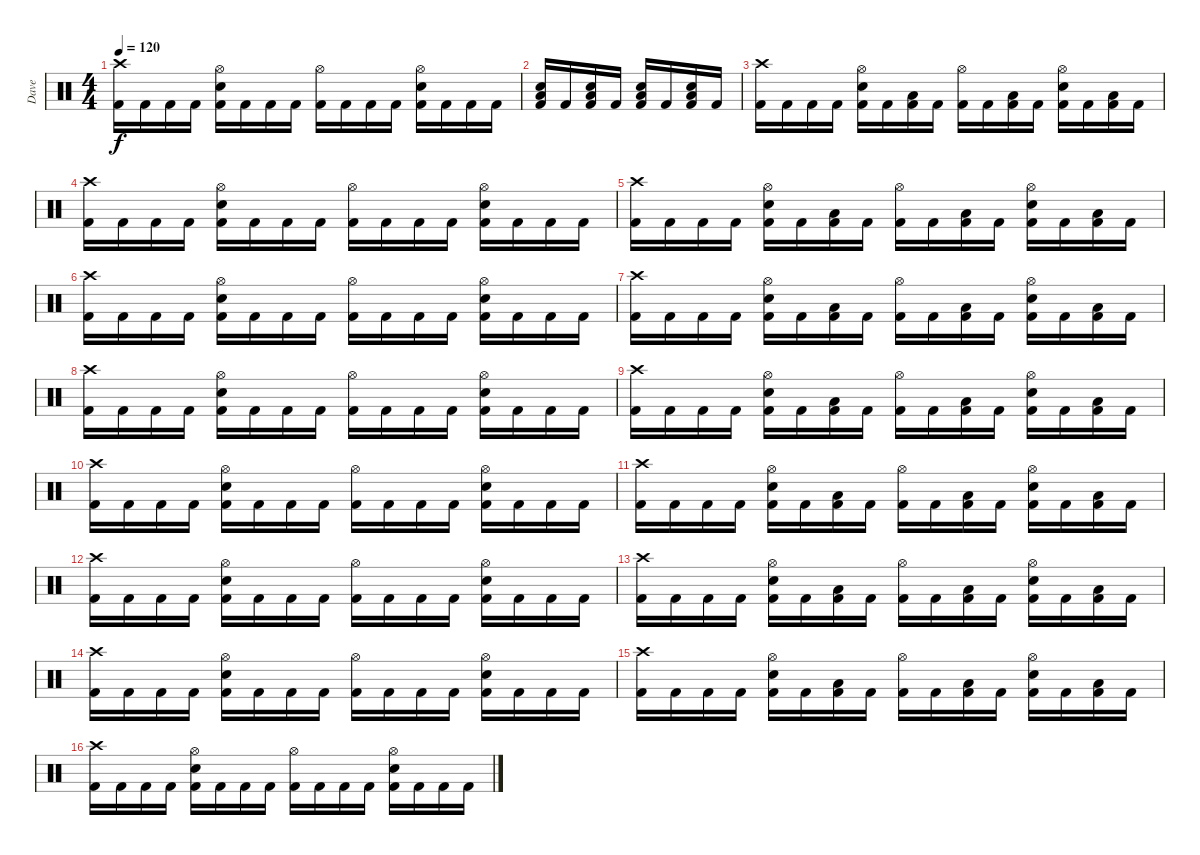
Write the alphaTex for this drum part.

\track ("Dave" "Dave") {instrument percussion}
\staff {score}
\articulation defaults
\ts (4 4)
\tempo 120
\clef neutral
\ks c
("Kick (hit) 2" "Crash high (hit)").16{dy f} "Kick (hit) 2".16 "Kick (hit) 2".16 "Kick (hit) 2".16 ("Kick (hit) 2" "Snare (hit) 2" "Hi-Hat (open)").16 "Kick (hit) 2".16 "Kick (hit) 2".16 "Kick (hit) 2".16 ("Kick (hit) 2" "Hi-Hat (open)").16 "Kick (hit) 2".16 "Kick (hit) 2".16 "Kick (hit) 2".16 ("Kick (hit) 2" "Snare (hit) 2" "Hi-Hat (open)").16 "Kick (hit) 2".16 "Kick (hit) 2".16 "Kick (hit) 2".16 |
("Kick (hit) 2" "Snare (hit) 2" "Low Floor Tom (hit)").16 "Kick (hit) 2".16 ("Kick (hit) 2" "Snare (hit) 2" "Low Floor Tom (hit)").16 "Kick (hit) 2".16 ("Kick (hit) 2" "Snare (hit) 2" "Low Floor Tom (hit)").16 "Kick (hit) 2".16 ("Kick (hit) 2" "Snare (hit) 2" "Low Floor Tom (hit)").16 "Kick (hit) 2".16 |
("Kick (hit) 2" "Crash high (hit)").16 "Kick (hit) 2".16 "Kick (hit) 2".16 "Kick (hit) 2".16 ("Kick (hit) 2" "Snare (hit) 2" "Hi-Hat (open)").16 "Kick (hit) 2".16 ("Kick (hit) 2" "Low Tom (hit)").16 "Kick (hit) 2".16 ("Kick (hit) 2" "Hi-Hat (open)").16 "Kick (hit) 2".16 ("Kick (hit) 2" "Low Tom (hit)").16 "Kick (hit) 2".16 ("Kick (hit) 2" "Snare (hit) 2" "Hi-Hat (open)").16 "Kick (hit) 2".16 ("Kick (hit) 2" "Low Floor Tom (hit)").16 "Kick (hit) 2".16 |
("Kick (hit) 2" "Crash high (hit)").16 "Kick (hit) 2".16 "Kick (hit) 2".16 "Kick (hit) 2".16 ("Kick (hit) 2" "Snare (hit) 2" "Hi-Hat (open)").16 "Kick (hit) 2".16 "Kick (hit) 2".16 "Kick (hit) 2".16 ("Kick (hit) 2" "Hi-Hat (open)").16 "Kick (hit) 2".16 "Kick (hit) 2".16 "Kick (hit) 2".16 ("Kick (hit) 2" "Snare (hit) 2" "Hi-Hat (open)").16 "Kick (hit) 2".16 "Kick (hit) 2".16 "Kick (hit) 2".16 |
("Kick (hit) 2" "Crash high (hit)").16 "Kick (hit) 2".16 "Kick (hit) 2".16 "Kick (hit) 2".16 ("Kick (hit) 2" "Snare (hit) 2" "Hi-Hat (open)").16 "Kick (hit) 2".16 ("Kick (hit) 2" "Low Tom (hit)").16 "Kick (hit) 2".16 ("Kick (hit) 2" "Hi-Hat (open)").16 "Kick (hit) 2".16 ("Kick (hit) 2" "Low Tom (hit)").16 "Kick (hit) 2".16 ("Kick (hit) 2" "Snare (hit) 2" "Hi-Hat (open)").16 "Kick (hit) 2".16 ("Kick (hit) 2" "Low Floor Tom (hit)").16 "Kick (hit) 2".16 |
("Kick (hit) 2" "Crash high (hit)").16 "Kick (hit) 2".16 "Kick (hit) 2".16 "Kick (hit) 2".16 ("Kick (hit) 2" "Snare (hit) 2" "Hi-Hat (open)").16 "Kick (hit) 2".16 "Kick (hit) 2".16 "Kick (hit) 2".16 ("Kick (hit) 2" "Hi-Hat (open)").16 "Kick (hit) 2".16 "Kick (hit) 2".16 "Kick (hit) 2".16 ("Kick (hit) 2" "Snare (hit) 2" "Hi-Hat (open)").16 "Kick (hit) 2".16 "Kick (hit) 2".16 "Kick (hit) 2".16 |
("Kick (hit) 2" "Crash high (hit)").16 "Kick (hit) 2".16 "Kick (hit) 2".16 "Kick (hit) 2".16 ("Kick (hit) 2" "Snare (hit) 2" "Hi-Hat (open)").16 "Kick (hit) 2".16 ("Kick (hit) 2" "Low Tom (hit)").16 "Kick (hit) 2".16 ("Kick (hit) 2" "Hi-Hat (open)").16 "Kick (hit) 2".16 ("Kick (hit) 2" "Low Tom (hit)").16 "Kick (hit) 2".16 ("Kick (hit) 2" "Snare (hit) 2" "Hi-Hat (open)").16 "Kick (hit) 2".16 ("Kick (hit) 2" "Low Floor Tom (hit)").16 "Kick (hit) 2".16 |
("Kick (hit) 2" "Crash high (hit)").16 "Kick (hit) 2".16 "Kick (hit) 2".16 "Kick (hit) 2".16 ("Kick (hit) 2" "Snare (hit) 2" "Hi-Hat (open)").16 "Kick (hit) 2".16 "Kick (hit) 2".16 "Kick (hit) 2".16 ("Kick (hit) 2" "Hi-Hat (open)").16 "Kick (hit) 2".16 "Kick (hit) 2".16 "Kick (hit) 2".16 ("Kick (hit) 2" "Snare (hit) 2" "Hi-Hat (open)").16 "Kick (hit) 2".16 "Kick (hit) 2".16 "Kick (hit) 2".16 |
("Kick (hit) 2" "Crash high (hit)").16 "Kick (hit) 2".16 "Kick (hit) 2".16 "Kick (hit) 2".16 ("Kick (hit) 2" "Snare (hit) 2" "Hi-Hat (open)").16 "Kick (hit) 2".16 ("Kick (hit) 2" "Low Tom (hit)").16 "Kick (hit) 2".16 ("Kick (hit) 2" "Hi-Hat (open)").16 "Kick (hit) 2".16 ("Kick (hit) 2" "Low Tom (hit)").16 "Kick (hit) 2".16 ("Kick (hit) 2" "Snare (hit) 2" "Hi-Hat (open)").16 "Kick (hit) 2".16 ("Kick (hit) 2" "Low Floor Tom (hit)").16 "Kick (hit) 2".16 |
("Kick (hit) 2" "Crash high (hit)").16 "Kick (hit) 2".16 "Kick (hit) 2".16 "Kick (hit) 2".16 ("Kick (hit) 2" "Snare (hit) 2" "Hi-Hat (open)").16 "Kick (hit) 2".16 "Kick (hit) 2".16 "Kick (hit) 2".16 ("Kick (hit) 2" "Hi-Hat (open)").16 "Kick (hit) 2".16 "Kick (hit) 2".16 "Kick (hit) 2".16 ("Kick (hit) 2" "Snare (hit) 2" "Hi-Hat (open)").16 "Kick (hit) 2".16 "Kick (hit) 2".16 "Kick (hit) 2".16 |
("Kick (hit) 2" "Crash high (hit)").16 "Kick (hit) 2".16 "Kick (hit) 2".16 "Kick (hit) 2".16 ("Kick (hit) 2" "Snare (hit) 2" "Hi-Hat (open)").16 "Kick (hit) 2".16 ("Kick (hit) 2" "Low Tom (hit)").16 "Kick (hit) 2".16 ("Kick (hit) 2" "Hi-Hat (open)").16 "Kick (hit) 2".16 ("Kick (hit) 2" "Low Tom (hit)").16 "Kick (hit) 2".16 ("Kick (hit) 2" "Snare (hit) 2" "Hi-Hat (open)").16 "Kick (hit) 2".16 ("Kick (hit) 2" "Low Floor Tom (hit)").16 "Kick (hit) 2".16 |
("Kick (hit) 2" "Crash high (hit)").16 "Kick (hit) 2".16 "Kick (hit) 2".16 "Kick (hit) 2".16 ("Kick (hit) 2" "Snare (hit) 2" "Hi-Hat (open)").16 "Kick (hit) 2".16 "Kick (hit) 2".16 "Kick (hit) 2".16 ("Kick (hit) 2" "Hi-Hat (open)").16 "Kick (hit) 2".16 "Kick (hit) 2".16 "Kick (hit) 2".16 ("Kick (hit) 2" "Snare (hit) 2" "Hi-Hat (open)").16 "Kick (hit) 2".16 "Kick (hit) 2".16 "Kick (hit) 2".16 |
("Kick (hit) 2" "Crash high (hit)").16 "Kick (hit) 2".16 "Kick (hit) 2".16 "Kick (hit) 2".16 ("Kick (hit) 2" "Snare (hit) 2" "Hi-Hat (open)").16 "Kick (hit) 2".16 ("Kick (hit) 2" "Low Tom (hit)").16 "Kick (hit) 2".16 ("Kick (hit) 2" "Hi-Hat (open)").16 "Kick (hit) 2".16 ("Kick (hit) 2" "Low Tom (hit)").16 "Kick (hit) 2".16 ("Kick (hit) 2" "Snare (hit) 2" "Hi-Hat (open)").16 "Kick (hit) 2".16 ("Kick (hit) 2" "Low Floor Tom (hit)").16 "Kick (hit) 2".16 |
("Kick (hit) 2" "Crash high (hit)").16 "Kick (hit) 2".16 "Kick (hit) 2".16 "Kick (hit) 2".16 ("Kick (hit) 2" "Snare (hit) 2" "Hi-Hat (open)").16 "Kick (hit) 2".16 "Kick (hit) 2".16 "Kick (hit) 2".16 ("Kick (hit) 2" "Hi-Hat (open)").16 "Kick (hit) 2".16 "Kick (hit) 2".16 "Kick (hit) 2".16 ("Kick (hit) 2" "Snare (hit) 2" "Hi-Hat (open)").16 "Kick (hit) 2".16 "Kick (hit) 2".16 "Kick (hit) 2".16 |
("Kick (hit) 2" "Crash high (hit)").16 "Kick (hit) 2".16 "Kick (hit) 2".16 "Kick (hit) 2".16 ("Kick (hit) 2" "Snare (hit) 2" "Hi-Hat (open)").16 "Kick (hit) 2".16 ("Kick (hit) 2" "Low Tom (hit)").16 "Kick (hit) 2".16 ("Kick (hit) 2" "Hi-Hat (open)").16 "Kick (hit) 2".16 ("Kick (hit) 2" "Low Tom (hit)").16 "Kick (hit) 2".16 ("Kick (hit) 2" "Snare (hit) 2" "Hi-Hat (open)").16 "Kick (hit) 2".16 ("Kick (hit) 2" "Low Floor Tom (hit)").16 "Kick (hit) 2".16 |
("Kick (hit) 2" "Crash high (hit)").16 "Kick (hit) 2".16 "Kick (hit) 2".16 "Kick (hit) 2".16 ("Kick (hit) 2" "Snare (hit) 2" "Hi-Hat (open)").16 "Kick (hit) 2".16 "Kick (hit) 2".16 "Kick (hit) 2".16 ("Kick (hit) 2" "Hi-Hat (open)").16 "Kick (hit) 2".16 "Kick (hit) 2".16 "Kick (hit) 2".16 ("Kick (hit) 2" "Snare (hit) 2" "Hi-Hat (open)").16 "Kick (hit) 2".16 "Kick (hit) 2".16 "Kick (hit) 2".16
